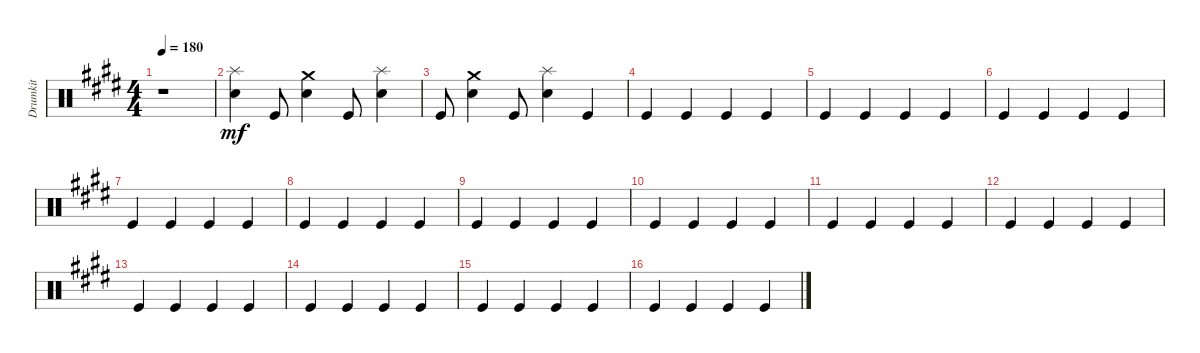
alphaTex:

\track ("Drumkit" "Drumkit") {instrument percussion}
\staff {score}
\articulation defaults
\ts (4 4)
\tempo 180
\clef neutral
\ks e
r.1{dy mf} |
("Snare (hit) 2" "Splash (hit)").4 "Kick (hit)".8 ("Snare (hit) 2" "Crash medium (hit)").4 "Kick (hit)".8 ("Snare (hit) 2" "Splash (hit)").4 |
"Kick (hit)".8 ("Snare (hit) 2" "Crash medium (hit)").4 "Kick (hit)".8 ("Snare (hit) 2" "Splash (hit)").4 "Kick (hit)".4 |
"Kick (hit)".4 "Kick (hit)".4 "Kick (hit)".4 "Kick (hit)".4 |
"Kick (hit)".4 "Kick (hit)".4 "Kick (hit)".4 "Kick (hit)".4 |
"Kick (hit)".4 "Kick (hit)".4 "Kick (hit)".4 "Kick (hit)".4 |
"Kick (hit)".4 "Kick (hit)".4 "Kick (hit)".4 "Kick (hit)".4 |
"Kick (hit)".4 "Kick (hit)".4 "Kick (hit)".4 "Kick (hit)".4 |
"Kick (hit)".4 "Kick (hit)".4 "Kick (hit)".4 "Kick (hit)".4 |
"Kick (hit)".4 "Kick (hit)".4 "Kick (hit)".4 "Kick (hit)".4 |
"Kick (hit)".4 "Kick (hit)".4 "Kick (hit)".4 "Kick (hit)".4 |
"Kick (hit)".4 "Kick (hit)".4 "Kick (hit)".4 "Kick (hit)".4 |
"Kick (hit)".4 "Kick (hit)".4 "Kick (hit)".4 "Kick (hit)".4 |
"Kick (hit)".4 "Kick (hit)".4 "Kick (hit)".4 "Kick (hit)".4 |
"Kick (hit)".4 "Kick (hit)".4 "Kick (hit)".4 "Kick (hit)".4 |
"Kick (hit)".4 "Kick (hit)".4 "Kick (hit)".4 "Kick (hit)".4
